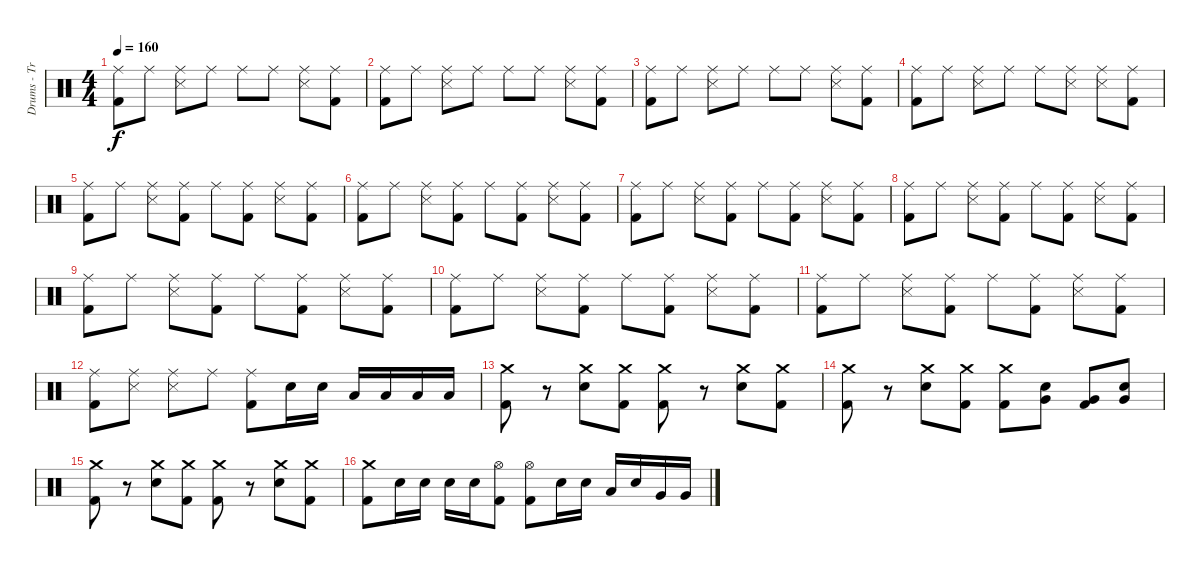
\track ("Drums - Travis Barker" "Drums - Tr") {instrument percussion}
\staff {score}
\articulation defaults
\ts (4 4)
\tempo 160
\clef neutral
\ks c
("Ride (middle)" "Kick (hit) 2").8{dy f} "Ride (middle)".8 ("Ride (middle)" "Snare (side stick) 3").8 "Ride (middle)".8 "Ride (middle)".8 "Ride (middle)".8 ("Ride (middle)" "Snare (side stick) 3").8 ("Ride (middle)" "Kick (hit) 2").8 |
("Ride (middle)" "Kick (hit) 2").8 "Ride (middle)".8 ("Ride (middle)" "Snare (side stick) 3").8 "Ride (middle)".8 "Ride (middle)".8 "Ride (middle)".8 ("Ride (middle)" "Snare (side stick) 3").8 ("Ride (middle)" "Kick (hit) 2").8 |
("Ride (middle)" "Kick (hit) 2").8 "Ride (middle)".8 ("Ride (middle)" "Snare (side stick) 3").8 "Ride (middle)".8 "Ride (middle)".8 "Ride (middle)".8 ("Ride (middle)" "Snare (side stick) 3").8 ("Ride (middle)" "Kick (hit) 2").8 |
("Ride (middle)" "Kick (hit) 2").8 "Ride (middle)".8 ("Ride (middle)" "Snare (side stick) 3").8 "Ride (middle)".8 "Ride (middle)".8 ("Ride (middle)" "Snare (side stick) 3").8 ("Ride (middle)" "Snare (side stick) 3").8 ("Ride (middle)" "Kick (hit) 2").8 |
("Ride (middle)" "Kick (hit) 2").8 "Ride (middle)".8 ("Ride (middle)" "Snare (side stick) 3").8 ("Ride (middle)" "Kick (hit) 2").8 "Ride (middle)".8 ("Ride (middle)" "Kick (hit) 2").8 ("Ride (middle)" "Snare (side stick) 3").8 ("Ride (middle)" "Kick (hit) 2").8 |
("Ride (middle)" "Kick (hit) 2").8 "Ride (middle)".8 ("Ride (middle)" "Snare (side stick) 3").8 ("Ride (middle)" "Kick (hit) 2").8 "Ride (middle)".8 ("Ride (middle)" "Kick (hit) 2").8 ("Ride (middle)" "Snare (side stick) 3").8 ("Ride (middle)" "Kick (hit) 2").8 |
("Ride (middle)" "Kick (hit) 2").8 "Ride (middle)".8 ("Ride (middle)" "Snare (side stick) 3").8 ("Ride (middle)" "Kick (hit) 2").8 "Ride (middle)".8 ("Ride (middle)" "Kick (hit) 2").8 ("Ride (middle)" "Snare (side stick) 3").8 ("Ride (middle)" "Kick (hit) 2").8 |
("Ride (middle)" "Kick (hit) 2").8 "Ride (middle)".8 ("Ride (middle)" "Snare (side stick) 3").8 ("Ride (middle)" "Kick (hit) 2").8 "Ride (middle)".8 ("Ride (middle)" "Kick (hit) 2").8 ("Ride (middle)" "Snare (side stick) 3").8 ("Ride (middle)" "Kick (hit) 2").8 |
("Ride (middle)" "Kick (hit) 2").8 "Ride (middle)".8 ("Ride (middle)" "Snare (side stick) 3").8 ("Ride (middle)" "Kick (hit) 2").8 "Ride (middle)".8 ("Ride (middle)" "Kick (hit) 2").8 ("Ride (middle)" "Snare (side stick) 3").8 ("Ride (middle)" "Kick (hit) 2").8 |
("Ride (middle)" "Kick (hit) 2").8 "Ride (middle)".8 ("Ride (middle)" "Snare (side stick) 3").8 ("Ride (middle)" "Kick (hit) 2").8 "Ride (middle)".8 ("Ride (middle)" "Kick (hit) 2").8 ("Ride (middle)" "Snare (side stick) 3").8 ("Ride (middle)" "Kick (hit) 2").8 |
("Ride (middle)" "Kick (hit) 2").8 "Ride (middle)".8 ("Ride (middle)" "Snare (side stick) 3").8 ("Ride (middle)" "Kick (hit) 2").8 "Ride (middle)".8 ("Ride (middle)" "Kick (hit) 2").8 ("Ride (middle)" "Snare (side stick) 3").8 ("Ride (middle)" "Kick (hit) 2").8 |
("Ride (middle)" "Kick (hit) 2").8 ("Ride (middle)" "Snare (side stick) 3").8 ("Ride (middle)" "Snare (side stick) 3").8 "Ride (middle)".8 ("Ride (middle)" "Kick (hit) 2").8 "Snare (hit) 2".16 "Snare (hit) 2".16 "Low Tom (hit)".16 "Low Tom (hit)".16 "Low Floor Tom (hit)".16 "Low Floor Tom (hit)".16 |
("Kick (hit) 2" "Crash medium (hit)").8 r.8 ("Snare (hit) 2" "Crash medium (hit)").8 ("Kick (hit) 2" "Crash medium (hit)").8 ("Kick (hit) 2" "Crash medium (hit)").8 r.8 ("Snare (hit) 2" "Crash medium (hit)").8 ("Kick (hit) 2" "Crash medium (hit)").8 |
("Kick (hit) 2" "Crash medium (hit)").8 r.8 ("Snare (hit) 2" "Crash medium (hit)").8 ("Kick (hit) 2" "Crash medium (hit)").8 ("Kick (hit) 2" "Crash medium (hit)").8 ("Snare (hit) 2" "Very Low Tom (hit)").8 ("Kick (hit) 2" "Very Low Tom (hit)").8 ("Snare (hit) 2" "Very Low Tom (hit)").8 |
("Kick (hit) 2" "Crash medium (hit)").8 r.8 ("Snare (hit) 2" "Crash medium (hit)").8 ("Kick (hit) 2" "Crash medium (hit)").8 ("Kick (hit) 2" "Crash medium (hit)").8 r.8 ("Snare (hit) 2" "Crash medium (hit)").8 ("Kick (hit) 2" "Crash medium (hit)").8 |
("Kick (hit) 2" "Crash medium (hit)").8 "Snare (hit) 2".16 "Snare (hit) 2".16 "Snare (hit) 2".16 "Snare (hit) 2".16 ("Hi-Hat (open)" "Kick (hit) 2").8 ("Hi-Hat (open)" "Kick (hit) 2").8 "Snare (hit) 2".16 "Snare (hit) 2".16 "Low Tom (hit)".16 "Snare (hit) 2".16 "Very Low Tom (hit)".16 "Very Low Tom (hit)".16
